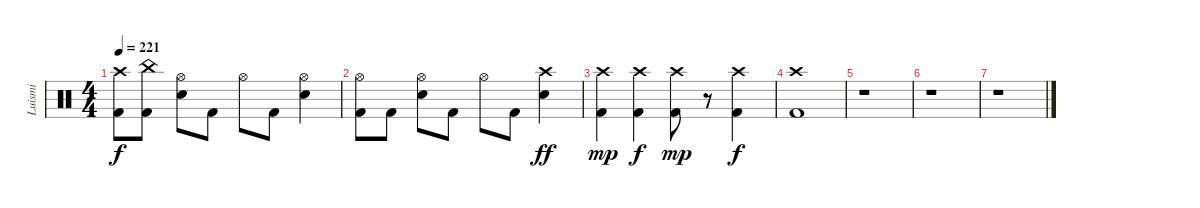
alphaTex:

\track ("Luismi" "Luismi") {instrument percussion}
\staff {score}
\articulation defaults
\ts (4 4)
\tempo 221
\clef neutral
\ks c
("Crash high (hit)" "Kick (hit) 2").8{dy f} ("China (hit)" "Kick (hit) 2").8 ("Hi-Hat (open)" "Snare (hit) 2").8 "Kick (hit) 2".8 "Hi-Hat (open)".8 "Kick (hit) 2".8 ("Hi-Hat (open)" "Snare (hit) 2").4 |
("Hi-Hat (open)" "Kick (hit) 2").8 "Kick (hit) 2".8 ("Hi-Hat (open)" "Snare (hit) 2").8 "Kick (hit) 2".8 "Hi-Hat (open)".8 "Kick (hit) 2".8 ("Crash high (hit)" "Snare (hit) 2").4{dy ff} |
("Crash high (hit)" "Kick (hit) 2").4{dy mp} ("Crash high (hit)" "Kick (hit) 2").4{dy f} ("Crash high (hit)" "Kick (hit) 2").8{dy mp} r.8 ("Crash high (hit)" "Kick (hit) 2").4{dy f} |
("Crash high (hit)" "Kick (hit) 2").1 |
r.1 |
r.1 |
r.1
